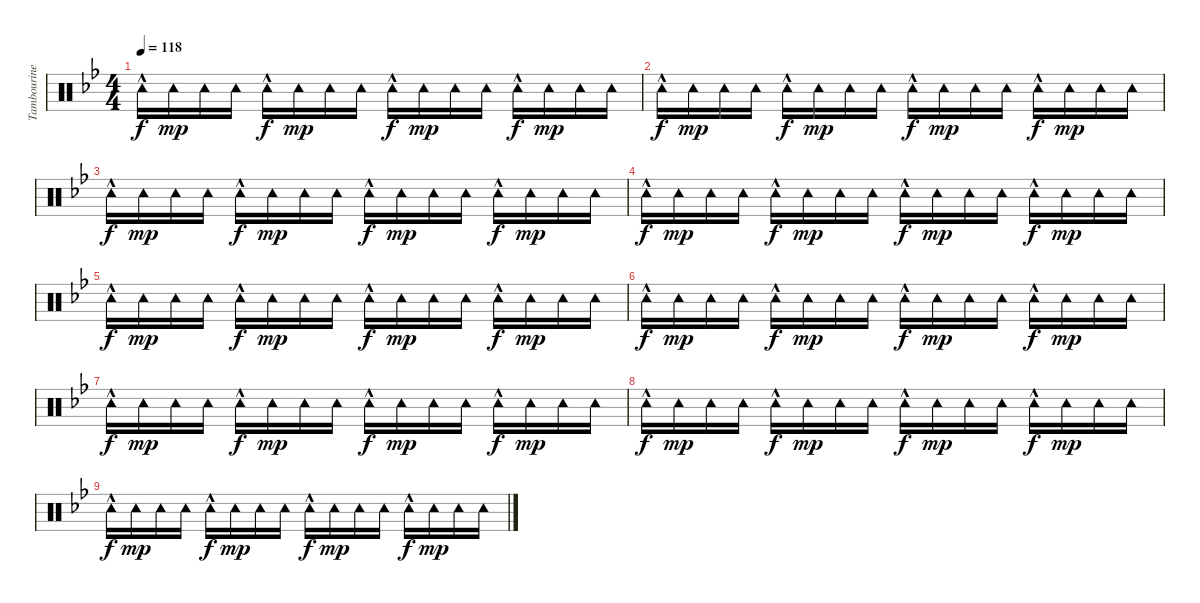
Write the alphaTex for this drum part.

\track ("Tambourine" "Tambourine") {instrument percussion}
\staff {score}
\articulation defaults
\ts (4 4)
\tempo 118
\clef neutral
\ks bb "Tambourine (hit)"{hac}.16{dy f} "Tambourine (hit)".16{dy mp} "Tambourine (hit)".16 "Tambourine (hit)".16 "Tambourine (hit)"{hac}.16{dy f} "Tambourine (hit)".16{dy mp} "Tambourine (hit)".16 "Tambourine (hit)".16 "Tambourine (hit)"{hac}.16{dy f} "Tambourine (hit)".16{dy mp} "Tambourine (hit)".16 "Tambourine (hit)".16 "Tambourine (hit)"{hac}.16{dy f} "Tambourine (hit)".16{dy mp} "Tambourine (hit)".16 "Tambourine (hit)".16
|
"Tambourine (hit)"{hac}.16{dy f} "Tambourine (hit)".16{dy mp} "Tambourine (hit)".16 "Tambourine (hit)".16 "Tambourine (hit)"{hac}.16{dy f} "Tambourine (hit)".16{dy mp} "Tambourine (hit)".16 "Tambourine (hit)".16 "Tambourine (hit)"{hac}.16{dy f} "Tambourine (hit)".16{dy mp} "Tambourine (hit)".16 "Tambourine (hit)".16 "Tambourine (hit)"{hac}.16{dy f} "Tambourine (hit)".16{dy mp} "Tambourine (hit)".16 "Tambourine (hit)".16 |
"Tambourine (hit)"{hac}.16{dy f} "Tambourine (hit)".16{dy mp} "Tambourine (hit)".16 "Tambourine (hit)".16 "Tambourine (hit)"{hac}.16{dy f} "Tambourine (hit)".16{dy mp} "Tambourine (hit)".16 "Tambourine (hit)".16 "Tambourine (hit)"{hac}.16{dy f} "Tambourine (hit)".16{dy mp} "Tambourine (hit)".16 "Tambourine (hit)".16 "Tambourine (hit)"{hac}.16{dy f} "Tambourine (hit)".16{dy mp} "Tambourine (hit)".16 "Tambourine (hit)".16 |
"Tambourine (hit)"{hac}.16{dy f} "Tambourine (hit)".16{dy mp} "Tambourine (hit)".16 "Tambourine (hit)".16 "Tambourine (hit)"{hac}.16{dy f} "Tambourine (hit)".16{dy mp} "Tambourine (hit)".16 "Tambourine (hit)".16 "Tambourine (hit)"{hac}.16{dy f} "Tambourine (hit)".16{dy mp} "Tambourine (hit)".16 "Tambourine (hit)".16 "Tambourine (hit)"{hac}.16{dy f} "Tambourine (hit)".16{dy mp} "Tambourine (hit)".16 "Tambourine (hit)".16 |
"Tambourine (hit)"{hac}.16{dy f} "Tambourine (hit)".16{dy mp} "Tambourine (hit)".16 "Tambourine (hit)".16 "Tambourine (hit)"{hac}.16{dy f} "Tambourine (hit)".16{dy mp} "Tambourine (hit)".16 "Tambourine (hit)".16 "Tambourine (hit)"{hac}.16{dy f} "Tambourine (hit)".16{dy mp} "Tambourine (hit)".16 "Tambourine (hit)".16 "Tambourine (hit)"{hac}.16{dy f} "Tambourine (hit)".16{dy mp} "Tambourine (hit)".16 "Tambourine (hit)".16 |
"Tambourine (hit)"{hac}.16{dy f} "Tambourine (hit)".16{dy mp} "Tambourine (hit)".16 "Tambourine (hit)".16 "Tambourine (hit)"{hac}.16{dy f} "Tambourine (hit)".16{dy mp} "Tambourine (hit)".16 "Tambourine (hit)".16 "Tambourine (hit)"{hac}.16{dy f} "Tambourine (hit)".16{dy mp} "Tambourine (hit)".16 "Tambourine (hit)".16 "Tambourine (hit)"{hac}.16{dy f} "Tambourine (hit)".16{dy mp} "Tambourine (hit)".16 "Tambourine (hit)".16 |
"Tambourine (hit)"{hac}.16{dy f} "Tambourine (hit)".16{dy mp} "Tambourine (hit)".16 "Tambourine (hit)".16 "Tambourine (hit)"{hac}.16{dy f} "Tambourine (hit)".16{dy mp} "Tambourine (hit)".16 "Tambourine (hit)".16 "Tambourine (hit)"{hac}.16{dy f} "Tambourine (hit)".16{dy mp} "Tambourine (hit)".16 "Tambourine (hit)".16 "Tambourine (hit)"{hac}.16{dy f} "Tambourine (hit)".16{dy mp} "Tambourine (hit)".16 "Tambourine (hit)".16 |
"Tambourine (hit)"{hac}.16{dy f} "Tambourine (hit)".16{dy mp} "Tambourine (hit)".16 "Tambourine (hit)".16 "Tambourine (hit)"{hac}.16{dy f} "Tambourine (hit)".16{dy mp} "Tambourine (hit)".16 "Tambourine (hit)".16 "Tambourine (hit)"{hac}.16{dy f} "Tambourine (hit)".16{dy mp} "Tambourine (hit)".16 "Tambourine (hit)".16 "Tambourine (hit)"{hac}.16{dy f} "Tambourine (hit)".16{dy mp} "Tambourine (hit)".16 "Tambourine (hit)".16 |
"Tambourine (hit)"{hac}.16{dy f} "Tambourine (hit)".16{dy mp} "Tambourine (hit)".16 "Tambourine (hit)".16 "Tambourine (hit)"{hac}.16{dy f} "Tambourine (hit)".16{dy mp} "Tambourine (hit)".16 "Tambourine (hit)".16 "Tambourine (hit)"{hac}.16{dy f} "Tambourine (hit)".16{dy mp} "Tambourine (hit)".16 "Tambourine (hit)".16 "Tambourine (hit)"{hac}.16{dy f} "Tambourine (hit)".16{dy mp} "Tambourine (hit)".16 "Tambourine (hit)".16
